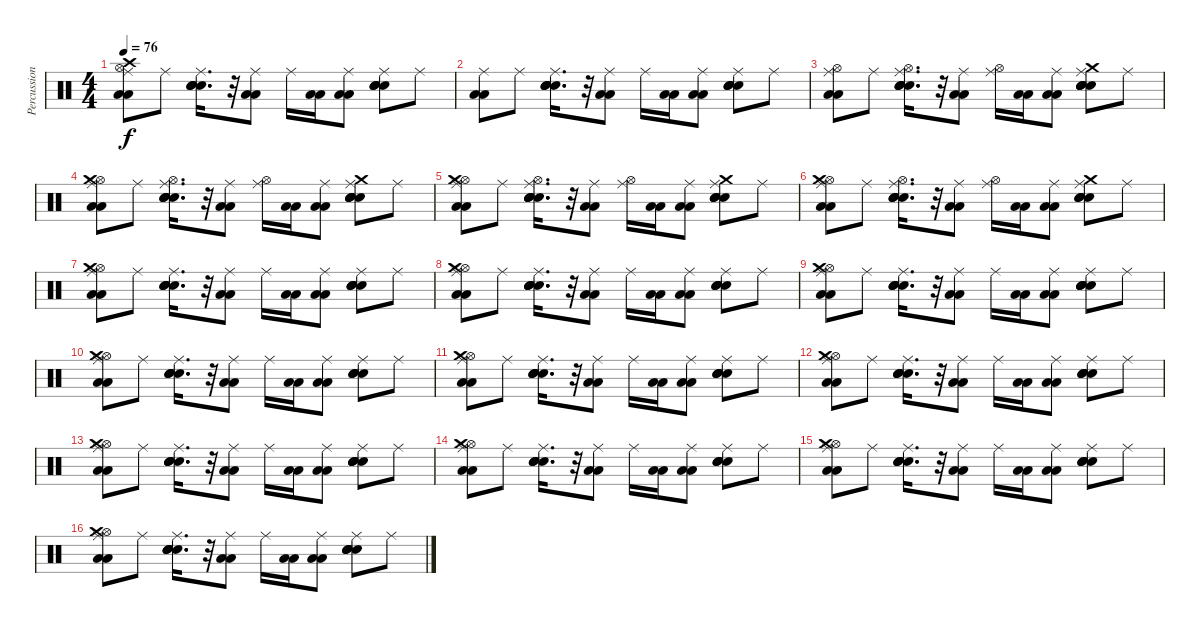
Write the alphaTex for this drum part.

\track ("Percussions" "Percussion") {instrument percussion}
\staff {score}
\articulation defaults
\ts (4 4)
\tempo 76
\clef neutral
\ks c
("Hi-Hat (open)" "Low Floor Tom (hit)" "Low Floor Tom (hit)" "Ride (middle)" "Crash high (hit)").8{dy f volume 8} "Ride (middle)".8 ("Electric Snare (hit)" "Electric Snare (hit)" "Snare (hit) 2" "Ride (middle)" "Snare (hit) 2").16{d} r.32 ("Low Floor Tom (hit)" "Low Floor Tom (hit)" "Ride (middle)").8 "Ride (middle)".16 ("Low Floor Tom (hit)" "Low Floor Tom (hit)").16 ("Low Floor Tom (hit)" "Low Floor Tom (hit)" "Ride (middle)").8 ("Electric Snare (hit)" "Electric Snare (hit)" "Snare (hit) 2" "Ride (middle)" "Snare (hit) 2").8 "Ride (middle)".8 |
("Low Floor Tom (hit)" "Low Floor Tom (hit)" "Ride (middle)").8 "Ride (middle)".8 ("Electric Snare (hit)" "Electric Snare (hit)" "Snare (hit) 2" "Ride (middle)" "Snare (hit) 2").16{d} r.32 ("Low Floor Tom (hit)" "Low Floor Tom (hit)" "Ride (middle)").8 "Ride (middle)".16 ("Low Floor Tom (hit)" "Low Floor Tom (hit)").16 ("Low Floor Tom (hit)" "Low Floor Tom (hit)" "Ride (middle)").8 ("Electric Snare (hit)" "Electric Snare (hit)" "Snare (hit) 2" "Ride (middle)" "Snare (hit) 2").8 "Ride (middle)".8 |
("Hi-Hat (open)" "Low Floor Tom (hit)" "Low Floor Tom (hit)" "Ride (middle)").8 "Ride (middle)".8 ("Electric Snare (hit)" "Electric Snare (hit)" "Snare (hit) 2" "Ride (middle)" "Snare (hit) 2" "Hi-Hat (open)").16{d} r.32 ("Low Floor Tom (hit)" "Low Floor Tom (hit)" "Ride (middle)").8 ("Hi-Hat (open)" "Ride (middle)").16 ("Low Floor Tom (hit)" "Low Floor Tom (hit)").16 ("Low Floor Tom (hit)" "Low Floor Tom (hit)" "Ride (middle)").8 ("Electric Snare (hit)" "Electric Snare (hit)" "Snare (hit) 2" "Ride (middle)" "Snare (hit) 2" "Crash medium (hit)").8 "Ride (middle)".8 |
("Hi-Hat (open)" "Low Floor Tom (hit)" "Low Floor Tom (hit)" "Ride (middle)" "Crash medium (hit)").8 "Ride (middle)".8 ("Electric Snare (hit)" "Electric Snare (hit)" "Snare (hit) 2" "Ride (middle)" "Snare (hit) 2" "Hi-Hat (open)").16{d} r.32 ("Low Floor Tom (hit)" "Low Floor Tom (hit)" "Ride (middle)").8 ("Hi-Hat (open)" "Ride (middle)").16 ("Low Floor Tom (hit)" "Low Floor Tom (hit)").16 ("Low Floor Tom (hit)" "Low Floor Tom (hit)" "Ride (middle)").8 ("Electric Snare (hit)" "Electric Snare (hit)" "Snare (hit) 2" "Ride (middle)" "Snare (hit) 2" "Crash medium (hit)").8 "Ride (middle)".8 |
("Hi-Hat (open)" "Low Floor Tom (hit)" "Low Floor Tom (hit)" "Ride (middle)" "Crash medium (hit)").8 "Ride (middle)".8 ("Electric Snare (hit)" "Electric Snare (hit)" "Snare (hit) 2" "Ride (middle)" "Snare (hit) 2" "Hi-Hat (open)").16{d} r.32 ("Low Floor Tom (hit)" "Low Floor Tom (hit)" "Ride (middle)").8 ("Hi-Hat (open)" "Ride (middle)").16 ("Low Floor Tom (hit)" "Low Floor Tom (hit)").16 ("Low Floor Tom (hit)" "Low Floor Tom (hit)" "Ride (middle)").8 ("Electric Snare (hit)" "Electric Snare (hit)" "Snare (hit) 2" "Ride (middle)" "Snare (hit) 2" "Crash medium (hit)").8 "Ride (middle)".8 |
("Hi-Hat (open)" "Low Floor Tom (hit)" "Low Floor Tom (hit)" "Ride (middle)" "Crash medium (hit)").8 "Ride (middle)".8 ("Electric Snare (hit)" "Electric Snare (hit)" "Snare (hit) 2" "Ride (middle)" "Snare (hit) 2" "Hi-Hat (open)").16{d} r.32 ("Low Floor Tom (hit)" "Low Floor Tom (hit)" "Ride (middle)").8 ("Hi-Hat (open)" "Ride (middle)").16 ("Low Floor Tom (hit)" "Low Floor Tom (hit)").16 ("Low Floor Tom (hit)" "Low Floor Tom (hit)" "Ride (middle)").8 ("Electric Snare (hit)" "Electric Snare (hit)" "Snare (hit) 2" "Ride (middle)" "Snare (hit) 2" "Crash medium (hit)").8 "Ride (middle)".8 |
("Hi-Hat (open)" "Low Floor Tom (hit)" "Low Floor Tom (hit)" "Ride (middle)" "Crash medium (hit)").8 "Ride (middle)".8 ("Electric Snare (hit)" "Electric Snare (hit)" "Snare (hit) 2" "Ride (middle)" "Snare (hit) 2").16{d} r.32 ("Low Floor Tom (hit)" "Low Floor Tom (hit)" "Ride (middle)").8 "Ride (middle)".16 ("Low Floor Tom (hit)" "Low Floor Tom (hit)").16 ("Low Floor Tom (hit)" "Low Floor Tom (hit)" "Ride (middle)").8 ("Electric Snare (hit)" "Electric Snare (hit)" "Snare (hit) 2" "Ride (middle)" "Snare (hit) 2").8 "Ride (middle)".8 |
("Hi-Hat (open)" "Low Floor Tom (hit)" "Low Floor Tom (hit)" "Ride (middle)" "Crash medium (hit)").8 "Ride (middle)".8 ("Electric Snare (hit)" "Electric Snare (hit)" "Snare (hit) 2" "Ride (middle)" "Snare (hit) 2").16{d} r.32 ("Low Floor Tom (hit)" "Low Floor Tom (hit)" "Ride (middle)").8 "Ride (middle)".16 ("Low Floor Tom (hit)" "Low Floor Tom (hit)").16 ("Low Floor Tom (hit)" "Low Floor Tom (hit)" "Ride (middle)").8 ("Electric Snare (hit)" "Electric Snare (hit)" "Snare (hit) 2" "Ride (middle)" "Snare (hit) 2").8 "Ride (middle)".8 |
("Hi-Hat (open)" "Low Floor Tom (hit)" "Low Floor Tom (hit)" "Ride (middle)" "Crash medium (hit)").8 "Ride (middle)".8 ("Electric Snare (hit)" "Electric Snare (hit)" "Snare (hit) 2" "Ride (middle)" "Snare (hit) 2").16{d} r.32 ("Low Floor Tom (hit)" "Low Floor Tom (hit)" "Ride (middle)").8 "Ride (middle)".16 ("Low Floor Tom (hit)" "Low Floor Tom (hit)").16 ("Low Floor Tom (hit)" "Low Floor Tom (hit)" "Ride (middle)").8 ("Electric Snare (hit)" "Electric Snare (hit)" "Snare (hit) 2" "Ride (middle)" "Snare (hit) 2").8 "Ride (middle)".8 |
("Hi-Hat (open)" "Low Floor Tom (hit)" "Low Floor Tom (hit)" "Ride (middle)" "Crash medium (hit)").8 "Ride (middle)".8 ("Electric Snare (hit)" "Electric Snare (hit)" "Snare (hit) 2" "Ride (middle)" "Snare (hit) 2").16{d} r.32 ("Low Floor Tom (hit)" "Low Floor Tom (hit)" "Ride (middle)").8 "Ride (middle)".16 ("Low Floor Tom (hit)" "Low Floor Tom (hit)").16 ("Low Floor Tom (hit)" "Low Floor Tom (hit)" "Ride (middle)").8 ("Electric Snare (hit)" "Electric Snare (hit)" "Snare (hit) 2" "Ride (middle)" "Snare (hit) 2").8 "Ride (middle)".8 |
("Hi-Hat (open)" "Low Floor Tom (hit)" "Low Floor Tom (hit)" "Ride (middle)" "Crash medium (hit)").8 "Ride (middle)".8 ("Electric Snare (hit)" "Electric Snare (hit)" "Snare (hit) 2" "Ride (middle)" "Snare (hit) 2").16{d} r.32 ("Low Floor Tom (hit)" "Low Floor Tom (hit)" "Ride (middle)").8 "Ride (middle)".16 ("Low Floor Tom (hit)" "Low Floor Tom (hit)").16 ("Low Floor Tom (hit)" "Low Floor Tom (hit)" "Ride (middle)").8 ("Electric Snare (hit)" "Electric Snare (hit)" "Snare (hit) 2" "Ride (middle)" "Snare (hit) 2").8 "Ride (middle)".8 |
("Hi-Hat (open)" "Low Floor Tom (hit)" "Low Floor Tom (hit)" "Ride (middle)" "Crash medium (hit)").8 "Ride (middle)".8 ("Electric Snare (hit)" "Electric Snare (hit)" "Snare (hit) 2" "Ride (middle)" "Snare (hit) 2").16{d} r.32 ("Low Floor Tom (hit)" "Low Floor Tom (hit)" "Ride (middle)").8 "Ride (middle)".16 ("Low Floor Tom (hit)" "Low Floor Tom (hit)").16 ("Low Floor Tom (hit)" "Low Floor Tom (hit)" "Ride (middle)").8 ("Electric Snare (hit)" "Electric Snare (hit)" "Snare (hit) 2" "Ride (middle)" "Snare (hit) 2").8 "Ride (middle)".8 |
("Hi-Hat (open)" "Low Floor Tom (hit)" "Low Floor Tom (hit)" "Ride (middle)" "Crash medium (hit)").8 "Ride (middle)".8 ("Electric Snare (hit)" "Electric Snare (hit)" "Snare (hit) 2" "Ride (middle)" "Snare (hit) 2").16{d} r.32 ("Low Floor Tom (hit)" "Low Floor Tom (hit)" "Ride (middle)").8 "Ride (middle)".16 ("Low Floor Tom (hit)" "Low Floor Tom (hit)").16 ("Low Floor Tom (hit)" "Low Floor Tom (hit)" "Ride (middle)").8 ("Electric Snare (hit)" "Electric Snare (hit)" "Snare (hit) 2" "Ride (middle)" "Snare (hit) 2").8 "Ride (middle)".8 |
("Hi-Hat (open)" "Low Floor Tom (hit)" "Low Floor Tom (hit)" "Ride (middle)" "Crash medium (hit)").8 "Ride (middle)".8 ("Electric Snare (hit)" "Electric Snare (hit)" "Snare (hit) 2" "Ride (middle)" "Snare (hit) 2").16{d} r.32 ("Low Floor Tom (hit)" "Low Floor Tom (hit)" "Ride (middle)").8 "Ride (middle)".16 ("Low Floor Tom (hit)" "Low Floor Tom (hit)").16 ("Low Floor Tom (hit)" "Low Floor Tom (hit)" "Ride (middle)").8 ("Electric Snare (hit)" "Electric Snare (hit)" "Snare (hit) 2" "Ride (middle)" "Snare (hit) 2").8 "Ride (middle)".8 |
("Hi-Hat (open)" "Low Floor Tom (hit)" "Low Floor Tom (hit)" "Ride (middle)" "Crash medium (hit)").8 "Ride (middle)".8 ("Electric Snare (hit)" "Electric Snare (hit)" "Snare (hit) 2" "Ride (middle)" "Snare (hit) 2").16{d} r.32 ("Low Floor Tom (hit)" "Low Floor Tom (hit)" "Ride (middle)").8 "Ride (middle)".16 ("Low Floor Tom (hit)" "Low Floor Tom (hit)").16 ("Low Floor Tom (hit)" "Low Floor Tom (hit)" "Ride (middle)").8 ("Electric Snare (hit)" "Electric Snare (hit)" "Snare (hit) 2" "Ride (middle)" "Snare (hit) 2").8 "Ride (middle)".8 |
("Hi-Hat (open)" "Low Floor Tom (hit)" "Low Floor Tom (hit)" "Ride (middle)" "Crash medium (hit)").8 "Ride (middle)".8 ("Electric Snare (hit)" "Electric Snare (hit)" "Snare (hit) 2" "Ride (middle)" "Snare (hit) 2").16{d} r.32 ("Low Floor Tom (hit)" "Low Floor Tom (hit)" "Ride (middle)").8 "Ride (middle)".16 ("Low Floor Tom (hit)" "Low Floor Tom (hit)").16 ("Low Floor Tom (hit)" "Low Floor Tom (hit)" "Ride (middle)").8 ("Electric Snare (hit)" "Electric Snare (hit)" "Snare (hit) 2" "Ride (middle)" "Snare (hit) 2").8 "Ride (middle)".8
